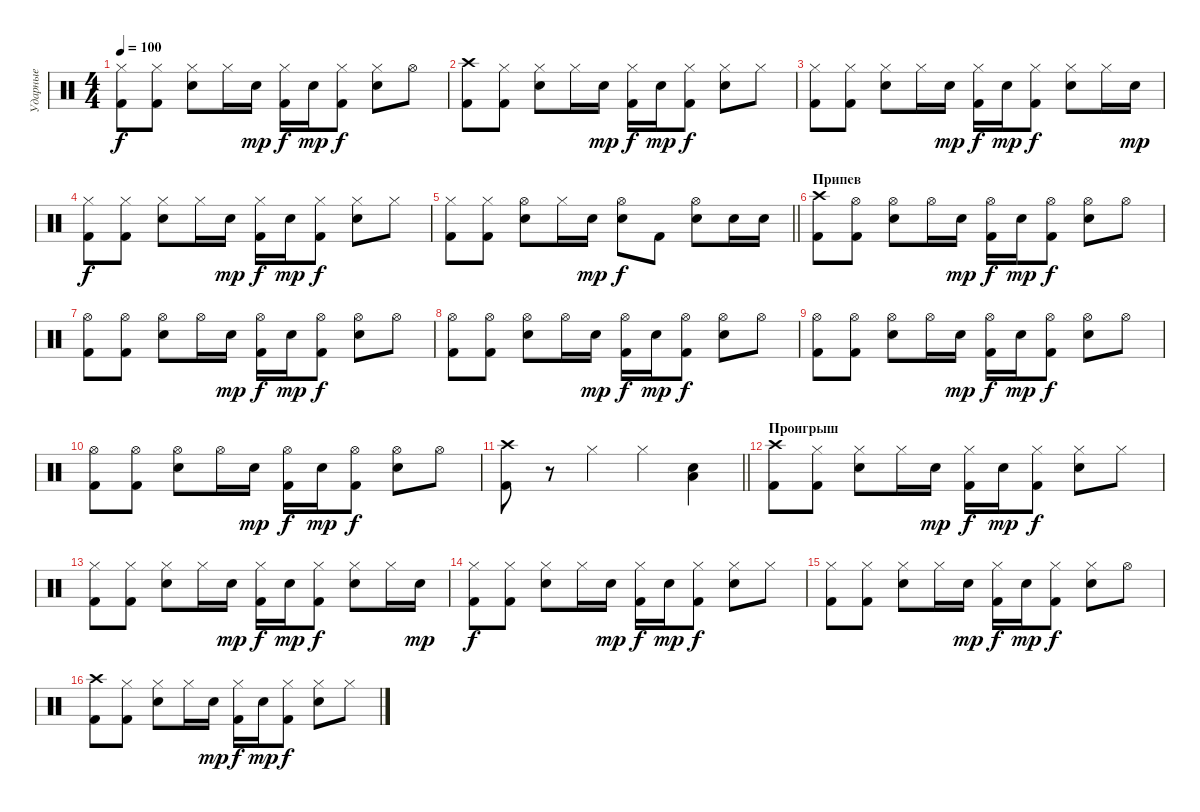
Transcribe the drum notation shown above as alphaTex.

\track ("Ударные" "Ударные") {instrument percussion}
\staff {score}
\articulation defaults
\ts (4 4)
\tempo 100
\clef neutral
\ks c
("Hi-Hat (closed)" "Kick (hit) 2").8{dy f} ("Hi-Hat (closed)" "Kick (hit) 2").8 ("Hi-Hat (closed)" "Electric Snare (hit)").8 "Hi-Hat (closed)".16 "Electric Snare (hit)".16{dy mp} ("Hi-Hat (closed)" "Kick (hit) 2").16{dy f} "Electric Snare (hit)".16{dy mp} ("Hi-Hat (closed)" "Kick (hit) 2").8{dy f} ("Hi-Hat (closed)" "Electric Snare (hit)").8 "Hi-Hat (open)".8 |
("Crash high (hit)" "Kick (hit) 2").8 ("Hi-Hat (closed)" "Kick (hit) 2").8 ("Hi-Hat (closed)" "Electric Snare (hit)").8 "Hi-Hat (closed)".16 "Electric Snare (hit)".16{dy mp} ("Hi-Hat (closed)" "Kick (hit) 2").16{dy f} "Electric Snare (hit)".16{dy mp} ("Hi-Hat (closed)" "Kick (hit) 2").8{dy f} ("Hi-Hat (closed)" "Electric Snare (hit)").8 "Hi-Hat (closed)".8 |
("Hi-Hat (closed)" "Kick (hit) 2").8 ("Hi-Hat (closed)" "Kick (hit) 2").8 ("Hi-Hat (closed)" "Electric Snare (hit)").8 "Hi-Hat (closed)".16 "Electric Snare (hit)".16{dy mp} ("Hi-Hat (closed)" "Kick (hit) 2").16{dy f} "Electric Snare (hit)".16{dy mp} ("Hi-Hat (closed)" "Kick (hit) 2").8{dy f} ("Hi-Hat (closed)" "Electric Snare (hit)").8 "Hi-Hat (closed)".16 "Electric Snare (hit)".16{dy mp} |
("Hi-Hat (closed)" "Kick (hit) 2").8{dy f} ("Hi-Hat (closed)" "Kick (hit) 2").8 ("Hi-Hat (closed)" "Electric Snare (hit)").8 "Hi-Hat (closed)".16 "Electric Snare (hit)".16{dy mp} ("Hi-Hat (closed)" "Kick (hit) 2").16{dy f} "Electric Snare (hit)".16{dy mp} ("Hi-Hat (closed)" "Kick (hit) 2").8{dy f} ("Hi-Hat (closed)" "Electric Snare (hit)").8 "Hi-Hat (closed)".8 |
\barLineRight lightlight
("Hi-Hat (closed)" "Kick (hit) 2").8 ("Hi-Hat (closed)" "Kick (hit) 2").8 ("Hi-Hat (open)" "Electric Snare (hit)").8 "Hi-Hat (closed)".16 "Electric Snare (hit)".16{dy mp} ("Hi-Hat (open)" "Electric Snare (hit)").8{dy f} "Kick (hit) 2".8 ("Hi-Hat (open)" "Electric Snare (hit)").8 "Electric Snare (hit)".16 "Electric Snare (hit)".16 |
\section ("" "Припев")
("Crash high (hit)" "Kick (hit) 2").8 ("Hi-Hat (open)" "Kick (hit) 2").8 ("Hi-Hat (open)" "Electric Snare (hit)").8 "Hi-Hat (open)".16 "Electric Snare (hit)".16{dy mp} ("Hi-Hat (open)" "Kick (hit) 2").16{dy f} "Electric Snare (hit)".16{dy mp} ("Hi-Hat (open)" "Kick (hit) 2").8{dy f} ("Hi-Hat (open)" "Electric Snare (hit)").8 "Hi-Hat (open)".8 |
("Hi-Hat (open)" "Kick (hit) 2").8 ("Hi-Hat (open)" "Kick (hit) 2").8 ("Hi-Hat (open)" "Electric Snare (hit)").8 "Hi-Hat (open)".16 "Electric Snare (hit)".16{dy mp} ("Hi-Hat (open)" "Kick (hit) 2").16{dy f} "Electric Snare (hit)".16{dy mp} ("Hi-Hat (open)" "Kick (hit) 2").8{dy f} ("Hi-Hat (open)" "Electric Snare (hit)").8 "Hi-Hat (open)".8 |
("Hi-Hat (open)" "Kick (hit) 2").8 ("Hi-Hat (open)" "Kick (hit) 2").8 ("Hi-Hat (open)" "Electric Snare (hit)").8 "Hi-Hat (open)".16 "Electric Snare (hit)".16{dy mp} ("Hi-Hat (open)" "Kick (hit) 2").16{dy f} "Electric Snare (hit)".16{dy mp} ("Hi-Hat (open)" "Kick (hit) 2").8{dy f} ("Hi-Hat (open)" "Electric Snare (hit)").8 "Hi-Hat (open)".8 |
("Hi-Hat (open)" "Kick (hit) 2").8 ("Hi-Hat (open)" "Kick (hit) 2").8 ("Hi-Hat (open)" "Electric Snare (hit)").8 "Hi-Hat (open)".16 "Electric Snare (hit)".16{dy mp} ("Hi-Hat (open)" "Kick (hit) 2").16{dy f} "Electric Snare (hit)".16{dy mp} ("Hi-Hat (open)" "Kick (hit) 2").8{dy f} ("Hi-Hat (open)" "Electric Snare (hit)").8 "Hi-Hat (open)".8 |
("Hi-Hat (open)" "Kick (hit) 2").8 ("Hi-Hat (open)" "Kick (hit) 2").8 ("Hi-Hat (open)" "Electric Snare (hit)").8 "Hi-Hat (open)".16 "Electric Snare (hit)".16{dy mp} ("Hi-Hat (open)" "Kick (hit) 2").16{dy f} "Electric Snare (hit)".16{dy mp} ("Hi-Hat (open)" "Kick (hit) 2").8{dy f} ("Hi-Hat (open)" "Electric Snare (hit)").8 "Hi-Hat (open)".8 |
\barLineRight lightlight
("Crash high (hit)" "Kick (hit) 2").8 r.8 "Hi-Hat (closed)".4 "Hi-Hat (closed)".4 ("Electric Snare (hit)" "Low Tom (hit)").4 |
\section ("" "Проигрыш")
("Crash high (hit)" "Kick (hit) 2").8 ("Hi-Hat (closed)" "Kick (hit) 2").8 ("Hi-Hat (closed)" "Electric Snare (hit)").8 "Hi-Hat (closed)".16 "Electric Snare (hit)".16{dy mp} ("Hi-Hat (closed)" "Kick (hit) 2").16{dy f} "Electric Snare (hit)".16{dy mp} ("Hi-Hat (closed)" "Kick (hit) 2").8{dy f} ("Hi-Hat (closed)" "Electric Snare (hit)").8 "Hi-Hat (closed)".8 |
("Hi-Hat (closed)" "Kick (hit) 2").8 ("Hi-Hat (closed)" "Kick (hit) 2").8 ("Hi-Hat (closed)" "Electric Snare (hit)").8 "Hi-Hat (closed)".16 "Electric Snare (hit)".16{dy mp} ("Hi-Hat (closed)" "Kick (hit) 2").16{dy f} "Electric Snare (hit)".16{dy mp} ("Hi-Hat (closed)" "Kick (hit) 2").8{dy f} ("Hi-Hat (closed)" "Electric Snare (hit)").8 "Hi-Hat (closed)".16 "Electric Snare (hit)".16{dy mp} |
("Hi-Hat (closed)" "Kick (hit) 2").8{dy f} ("Hi-Hat (closed)" "Kick (hit) 2").8 ("Hi-Hat (closed)" "Electric Snare (hit)").8 "Hi-Hat (closed)".16 "Electric Snare (hit)".16{dy mp} ("Hi-Hat (closed)" "Kick (hit) 2").16{dy f} "Electric Snare (hit)".16{dy mp} ("Hi-Hat (closed)" "Kick (hit) 2").8{dy f} ("Hi-Hat (closed)" "Electric Snare (hit)").8 "Hi-Hat (closed)".8 |
("Hi-Hat (closed)" "Kick (hit) 2").8 ("Hi-Hat (closed)" "Kick (hit) 2").8 ("Hi-Hat (closed)" "Electric Snare (hit)").8 "Hi-Hat (closed)".16 "Electric Snare (hit)".16{dy mp} ("Hi-Hat (closed)" "Kick (hit) 2").16{dy f} "Electric Snare (hit)".16{dy mp} ("Hi-Hat (closed)" "Kick (hit) 2").8{dy f} ("Hi-Hat (closed)" "Electric Snare (hit)").8 "Hi-Hat (open)".8 |
("Crash high (hit)" "Kick (hit) 2").8 ("Hi-Hat (closed)" "Kick (hit) 2").8 ("Hi-Hat (closed)" "Electric Snare (hit)").8 "Hi-Hat (closed)".16 "Electric Snare (hit)".16{dy mp} ("Hi-Hat (closed)" "Kick (hit) 2").16{dy f} "Electric Snare (hit)".16{dy mp} ("Hi-Hat (closed)" "Kick (hit) 2").8{dy f} ("Hi-Hat (closed)" "Electric Snare (hit)").8 "Hi-Hat (closed)".8
